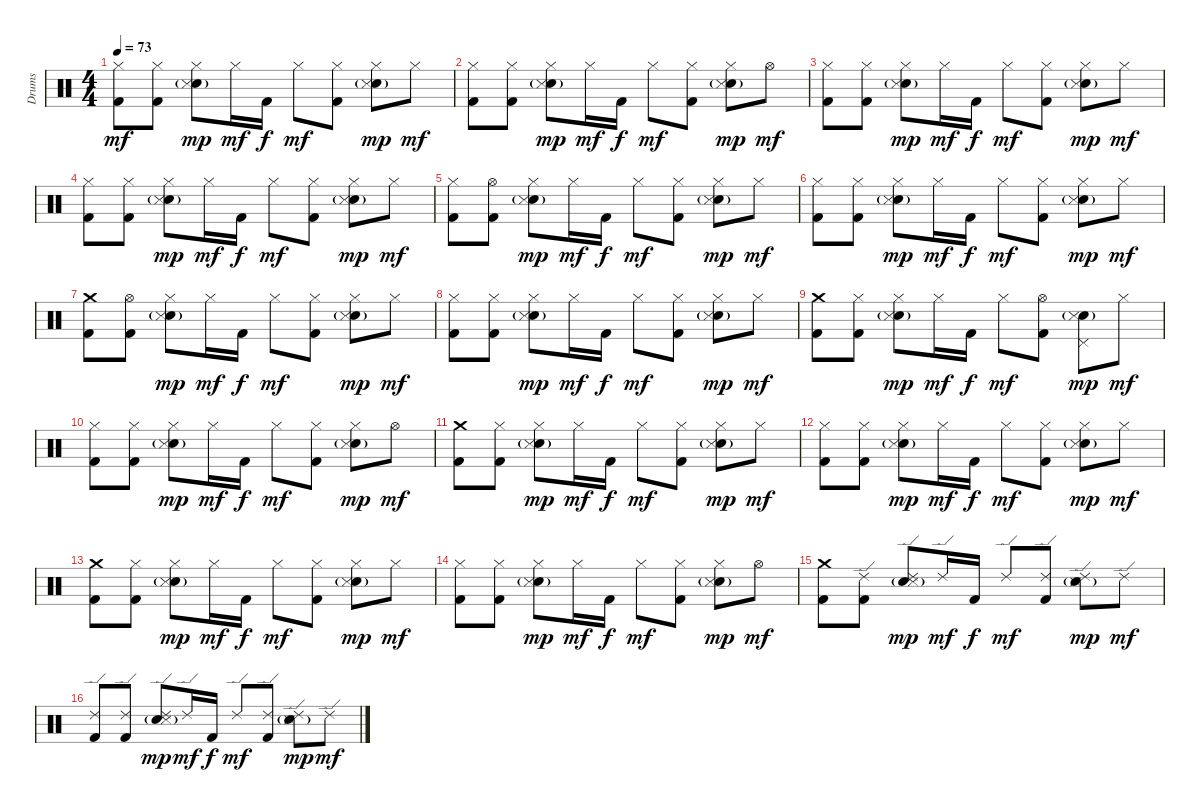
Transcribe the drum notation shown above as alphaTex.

\track ("Drums" "Drums") {instrument percussion}
\staff {score}
\articulation defaults
\ts (4 4)
\tempo 73
\clef neutral
\ks c
("Hi-Hat (closed)" "Kick (hit) 2").8{dy mf} ("Hi-Hat (closed)" "Kick (hit) 2").8 ("Hi-Hat (closed)" "Snare (hit) 2"{g} "Snare (side stick) 3").8{dy mp} "Hi-Hat (closed)".16{dy mf} "Kick (hit) 2".16{dy f} "Hi-Hat (closed)".8{dy mf} ("Hi-Hat (closed)" "Kick (hit) 2").8 ("Hi-Hat (closed)" "Snare (hit) 2"{g} "Snare (side stick) 3").8{dy mp} "Hi-Hat (closed)".8{dy mf} |
("Hi-Hat (closed)" "Kick (hit) 2").8 ("Hi-Hat (closed)" "Kick (hit) 2").8 ("Hi-Hat (closed)" "Snare (hit) 2"{g} "Snare (side stick) 3").8{dy mp} "Hi-Hat (closed)".16{dy mf} "Kick (hit) 2".16{dy f} "Hi-Hat (closed)".8{dy mf} ("Hi-Hat (closed)" "Kick (hit) 2").8 ("Hi-Hat (closed)" "Snare (hit) 2"{g} "Snare (side stick) 3").8{dy mp} "Hi-Hat (open)".8{dy mf} |
("Hi-Hat (closed)" "Kick (hit) 2").8 ("Hi-Hat (closed)" "Kick (hit) 2").8 ("Hi-Hat (closed)" "Snare (hit) 2"{g} "Snare (side stick) 3").8{dy mp} "Hi-Hat (closed)".16{dy mf} "Kick (hit) 2".16{dy f} "Hi-Hat (closed)".8{dy mf} ("Hi-Hat (closed)" "Kick (hit) 2").8 ("Hi-Hat (closed)" "Snare (hit) 2"{g} "Snare (side stick) 3").8{dy mp} "Hi-Hat (closed)".8{dy mf} |
("Hi-Hat (closed)" "Kick (hit) 2").8 ("Hi-Hat (closed)" "Kick (hit) 2").8 ("Hi-Hat (closed)" "Snare (hit) 2"{g} "Snare (side stick) 3").8{dy mp} "Hi-Hat (closed)".16{dy mf} "Kick (hit) 2".16{dy f} "Hi-Hat (closed)".8{dy mf} ("Hi-Hat (closed)" "Kick (hit) 2").8 ("Hi-Hat (closed)" "Snare (hit) 2"{g} "Snare (side stick) 3").8{dy mp} "Hi-Hat (closed)".8{dy mf} |
("Hi-Hat (closed)" "Kick (hit) 2").8 ("Hi-Hat (open)" "Kick (hit) 2").8 ("Hi-Hat (closed)" "Snare (hit) 2"{g} "Snare (side stick) 3").8{dy mp} "Hi-Hat (closed)".16{dy mf} "Kick (hit) 2".16{dy f} "Hi-Hat (closed)".8{dy mf} ("Hi-Hat (closed)" "Kick (hit) 2").8 ("Hi-Hat (closed)" "Snare (hit) 2"{g} "Snare (side stick) 3").8{dy mp} "Hi-Hat (closed)".8{dy mf} |
("Hi-Hat (closed)" "Kick (hit) 2").8 ("Hi-Hat (closed)" "Kick (hit) 2").8 ("Hi-Hat (closed)" "Snare (hit) 2"{g} "Snare (side stick) 3").8{dy mp} "Hi-Hat (closed)".16{dy mf} "Kick (hit) 2".16{dy f} "Hi-Hat (closed)".8{dy mf} ("Hi-Hat (closed)" "Kick (hit) 2").8 ("Hi-Hat (closed)" "Snare (hit) 2"{g} "Snare (side stick) 3").8{dy mp} "Hi-Hat (closed)".8{dy mf} |
("Crash medium (hit)" "Kick (hit) 2").8 ("Hi-Hat (open)" "Kick (hit) 2").8 ("Hi-Hat (closed)" "Snare (hit) 2"{g} "Snare (side stick) 3").8{dy mp} "Hi-Hat (closed)".16{dy mf} "Kick (hit) 2".16{dy f} "Hi-Hat (closed)".8{dy mf} ("Hi-Hat (closed)" "Kick (hit) 2").8 ("Hi-Hat (closed)" "Snare (hit) 2"{g} "Snare (side stick) 3").8{dy mp} "Hi-Hat (closed)".8{dy mf} |
("Hi-Hat (closed)" "Kick (hit) 2").8 ("Hi-Hat (closed)" "Kick (hit) 2").8 ("Hi-Hat (closed)" "Snare (hit) 2"{g} "Snare (side stick) 3").8{dy mp} "Hi-Hat (closed)".16{dy mf} "Kick (hit) 2".16{dy f} "Hi-Hat (closed)".8{dy mf} ("Hi-Hat (closed)" "Kick (hit) 2").8 ("Hi-Hat (closed)" "Snare (hit) 2"{g} "Snare (side stick) 3").8{dy mp} "Hi-Hat (closed)".8{dy mf} |
("Crash medium (hit)" "Kick (hit) 2").8 ("Hi-Hat (closed)" "Kick (hit) 2").8 ("Hi-Hat (closed)" "Snare (hit) 2"{g} "Snare (side stick) 3").8{dy mp} "Hi-Hat (closed)".16{dy mf} "Kick (hit) 2".16{dy f} "Hi-Hat (closed)".8{dy mf} ("Hi-Hat (open)" "Kick (hit) 2").8 ("Pedal Hi-Hat (hit)" "Snare (hit) 2"{g} "Snare (side stick) 3").8{dy mp} "Hi-Hat (closed)".8{dy mf} |
("Hi-Hat (closed)" "Kick (hit) 2").8 ("Hi-Hat (closed)" "Kick (hit) 2").8 ("Hi-Hat (closed)" "Snare (hit) 2"{g} "Snare (side stick) 3").8{dy mp} "Hi-Hat (closed)".16{dy mf} "Kick (hit) 2".16{dy f} "Hi-Hat (closed)".8{dy mf} ("Hi-Hat (closed)" "Kick (hit) 2").8 ("Hi-Hat (closed)" "Snare (hit) 2"{g} "Snare (side stick) 3").8{dy mp} "Hi-Hat (open)".8{dy mf} |
("Crash medium (hit)" "Kick (hit) 2").8 ("Hi-Hat (closed)" "Kick (hit) 2").8 ("Hi-Hat (closed)" "Snare (hit) 2"{g} "Snare (side stick) 3").8{dy mp} "Hi-Hat (closed)".16{dy mf} "Kick (hit) 2".16{dy f} "Hi-Hat (closed)".8{dy mf} ("Hi-Hat (closed)" "Kick (hit) 2").8 ("Hi-Hat (closed)" "Snare (hit) 2"{g} "Snare (side stick) 3").8{dy mp} "Hi-Hat (closed)".8{dy mf} |
("Hi-Hat (closed)" "Kick (hit) 2").8 ("Hi-Hat (closed)" "Kick (hit) 2").8 ("Hi-Hat (closed)" "Snare (hit) 2"{g} "Snare (side stick) 3").8{dy mp} "Hi-Hat (closed)".16{dy mf} "Kick (hit) 2".16{dy f} "Hi-Hat (closed)".8{dy mf} ("Hi-Hat (closed)" "Kick (hit) 2").8 ("Hi-Hat (closed)" "Snare (hit) 2"{g} "Snare (side stick) 3").8{dy mp} "Hi-Hat (closed)".8{dy mf} |
("Crash medium (hit)" "Kick (hit) 2").8 ("Hi-Hat (closed)" "Kick (hit) 2").8 ("Hi-Hat (closed)" "Snare (hit) 2"{g} "Snare (side stick) 3").8{dy mp} "Hi-Hat (closed)".16{dy mf} "Kick (hit) 2".16{dy f} "Hi-Hat (closed)".8{dy mf} ("Hi-Hat (closed)" "Kick (hit) 2").8 ("Hi-Hat (closed)" "Snare (hit) 2"{g} "Snare (side stick) 3").8{dy mp} "Hi-Hat (closed)".8{dy mf} |
("Hi-Hat (closed)" "Kick (hit) 2").8 ("Hi-Hat (closed)" "Kick (hit) 2").8 ("Hi-Hat (closed)" "Snare (hit) 2"{g} "Snare (side stick) 3").8{dy mp} "Hi-Hat (closed)".16{dy mf} "Kick (hit) 2".16{dy f} "Hi-Hat (closed)".8{dy mf} ("Hi-Hat (closed)" "Kick (hit) 2").8 ("Hi-Hat (closed)" "Snare (hit) 2"{g} "Snare (side stick) 3").8{dy mp} "Hi-Hat (open)".8{dy mf} |
("Crash medium (hit)" "Kick (hit) 2").8 ("Ride (edge) 2" "Kick (hit) 2").8 ("Ride (edge) 2" "Snare (hit) 2"{g} "Snare (side stick) 3").8{dy mp} "Ride (edge) 2".16{dy mf} "Kick (hit) 2".16{dy f} "Ride (edge) 2".8{dy mf} ("Ride (edge) 2" "Kick (hit) 2").8 ("Ride (edge) 2" "Snare (hit) 2"{g} "Snare (side stick) 3").8{dy mp} "Ride (edge) 2".8{dy mf} |
("Ride (edge) 2" "Kick (hit) 2").8 ("Ride (edge) 2" "Kick (hit) 2").8 ("Ride (edge) 2" "Snare (hit) 2"{g} "Snare (side stick) 3").8{dy mp} "Ride (edge) 2".16{dy mf} "Kick (hit) 2".16{dy f} "Ride (edge) 2".8{dy mf} ("Ride (edge) 2" "Kick (hit) 2").8 ("Ride (edge) 2" "Snare (hit) 2"{g} "Snare (side stick) 3").8{dy mp} "Ride (edge) 2".8{dy mf}
